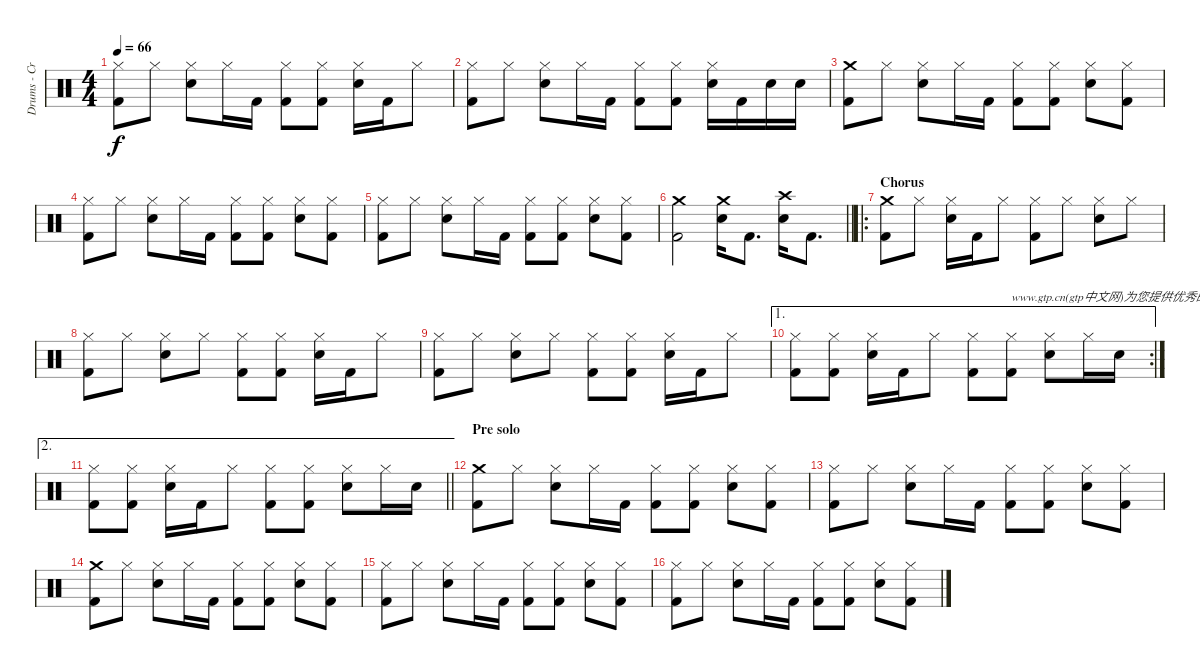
\track ("Drums - Craig" "Drums - Cr") {instrument percussion}
\staff {score}
\articulation defaults
\ts (4 4)
\tempo 66
\clef neutral
\ks c
("Hi-Hat (closed)" "Kick (hit) 2").8{dy f} "Hi-Hat (closed)".8 ("Hi-Hat (closed)" "Snare (hit) 2").8 "Hi-Hat (closed)".16 "Kick (hit) 2".16 ("Hi-Hat (closed)" "Kick (hit) 2").8 ("Hi-Hat (closed)" "Kick (hit) 2").8 ("Hi-Hat (closed)" "Snare (hit) 2").16 "Kick (hit) 2".16 "Hi-Hat (closed)".8 |
("Hi-Hat (closed)" "Kick (hit) 2").8 "Hi-Hat (closed)".8 ("Hi-Hat (closed)" "Snare (hit) 2").8 "Hi-Hat (closed)".16 "Kick (hit) 2".16 ("Hi-Hat (closed)" "Kick (hit) 2").8 ("Hi-Hat (closed)" "Kick (hit) 2").8 ("Hi-Hat (closed)" "Snare (hit) 2").16 "Kick (hit) 2".16 "Snare (hit) 2".16 "Snare (hit) 2".16 |
("Crash medium (hit)" "Kick (hit) 2").8 "Hi-Hat (closed)".8 ("Hi-Hat (closed)" "Snare (hit) 2").8 "Hi-Hat (closed)".16 "Kick (hit) 2".16 ("Hi-Hat (closed)" "Kick (hit) 2").8 ("Hi-Hat (closed)" "Kick (hit) 2").8 ("Hi-Hat (closed)" "Snare (hit) 2").8 ("Hi-Hat (closed)" "Kick (hit) 2").8 |
("Hi-Hat (closed)" "Kick (hit) 2").8 "Hi-Hat (closed)".8 ("Hi-Hat (closed)" "Snare (hit) 2").8 "Hi-Hat (closed)".16 "Kick (hit) 2".16 ("Hi-Hat (closed)" "Kick (hit) 2").8 ("Hi-Hat (closed)" "Kick (hit) 2").8 ("Hi-Hat (closed)" "Snare (hit) 2").8 ("Hi-Hat (closed)" "Kick (hit) 2").8 |
("Hi-Hat (closed)" "Kick (hit) 2").8 "Hi-Hat (closed)".8 ("Hi-Hat (closed)" "Snare (hit) 2").8 "Hi-Hat (closed)".16 "Kick (hit) 2".16 ("Hi-Hat (closed)" "Kick (hit) 2").8 ("Hi-Hat (closed)" "Kick (hit) 2").8 ("Hi-Hat (closed)" "Snare (hit) 2").8 ("Hi-Hat (closed)" "Kick (hit) 2").8 |
\barLineRight lightlight
("Crash medium (hit)" "Kick (hit) 2").2 ("Crash medium (hit)" "Snare (hit) 2").16 "Kick (hit) 2".8{d} ("Crash high (hit)" "Snare (hit) 2").16 "Kick (hit) 2".8{d} |
\ro
\section ("" "Chorus")
("Crash medium (hit)" "Kick (hit) 2").8 "Hi-Hat (closed)".8 ("Hi-Hat (closed)" "Snare (hit) 2").16 "Kick (hit) 2".16 "Hi-Hat (closed)".8 ("Hi-Hat (closed)" "Kick (hit) 2").8 "Hi-Hat (closed)".8 ("Hi-Hat (closed)" "Snare (hit) 2").8 "Hi-Hat (closed)".8 |
("Hi-Hat (closed)" "Kick (hit) 2").8 "Hi-Hat (closed)".8 ("Hi-Hat (closed)" "Snare (hit) 2").8 "Hi-Hat (closed)".8 ("Hi-Hat (closed)" "Kick (hit) 2").8 ("Hi-Hat (closed)" "Kick (hit) 2").8 ("Hi-Hat (closed)" "Snare (hit) 2").16 "Kick (hit) 2".16 "Hi-Hat (closed)".8 |
("Hi-Hat (closed)" "Kick (hit) 2").8 "Hi-Hat (closed)".8 ("Hi-Hat (closed)" "Snare (hit) 2").8 "Hi-Hat (closed)".8 ("Hi-Hat (closed)" "Kick (hit) 2").8 ("Hi-Hat (closed)" "Kick (hit) 2").8 ("Hi-Hat (closed)" "Snare (hit) 2").16 "Kick (hit) 2".16 "Hi-Hat (closed)".8 |
\ae 1
\rc 2
("Hi-Hat (closed)" "Kick (hit) 2").8 ("Hi-Hat (closed)" "Kick (hit) 2").8 ("Hi-Hat (closed)" "Snare (hit) 2").16 "Kick (hit) 2".16 "Hi-Hat (closed)".8 ("Hi-Hat (closed)" "Kick (hit) 2").8 ("Hi-Hat (closed)" "Kick (hit) 2").8{txt "www.gtp.cn(gtp中文网)为您提供优秀的GTP!"} ("Hi-Hat (closed)" "Snare (hit) 2").8 "Hi-Hat (closed)".16 "Snare (hit) 2".16 |
\ae 2
\barLineRight lightlight
("Hi-Hat (closed)" "Kick (hit) 2").8 ("Hi-Hat (closed)" "Kick (hit) 2").8 ("Hi-Hat (closed)" "Snare (hit) 2").16 "Kick (hit) 2".16 "Hi-Hat (closed)".8 ("Hi-Hat (closed)" "Kick (hit) 2").8 ("Hi-Hat (closed)" "Kick (hit) 2").8 ("Hi-Hat (closed)" "Snare (hit) 2").8 "Hi-Hat (closed)".16 "Snare (hit) 2".16 |
\section ("" "Pre solo")
("Crash medium (hit)" "Kick (hit) 2").8 "Hi-Hat (closed)".8 ("Hi-Hat (closed)" "Snare (hit) 2").8 "Hi-Hat (closed)".16 "Kick (hit) 2".16 ("Hi-Hat (closed)" "Kick (hit) 2").8 ("Hi-Hat (closed)" "Kick (hit) 2").8 ("Hi-Hat (closed)" "Snare (hit) 2").8 ("Hi-Hat (closed)" "Kick (hit) 2").8 |
("Hi-Hat (closed)" "Kick (hit) 2").8 "Hi-Hat (closed)".8 ("Hi-Hat (closed)" "Snare (hit) 2").8 "Hi-Hat (closed)".16 "Kick (hit) 2".16 ("Hi-Hat (closed)" "Kick (hit) 2").8 ("Hi-Hat (closed)" "Kick (hit) 2").8 ("Hi-Hat (closed)" "Snare (hit) 2").8 ("Hi-Hat (closed)" "Kick (hit) 2").8 |
("Crash medium (hit)" "Kick (hit) 2").8 "Hi-Hat (closed)".8 ("Hi-Hat (closed)" "Snare (hit) 2").8 "Hi-Hat (closed)".16 "Kick (hit) 2".16 ("Hi-Hat (closed)" "Kick (hit) 2").8 ("Hi-Hat (closed)" "Kick (hit) 2").8 ("Hi-Hat (closed)" "Snare (hit) 2").8 ("Hi-Hat (closed)" "Kick (hit) 2").8 |
("Hi-Hat (closed)" "Kick (hit) 2").8 "Hi-Hat (closed)".8 ("Hi-Hat (closed)" "Snare (hit) 2").8 "Hi-Hat (closed)".16 "Kick (hit) 2".16 ("Hi-Hat (closed)" "Kick (hit) 2").8 ("Hi-Hat (closed)" "Kick (hit) 2").8 ("Hi-Hat (closed)" "Snare (hit) 2").8 ("Hi-Hat (closed)" "Kick (hit) 2").8 |
("Hi-Hat (closed)" "Kick (hit) 2").8 "Hi-Hat (closed)".8 ("Hi-Hat (closed)" "Snare (hit) 2").8 "Hi-Hat (closed)".16 "Kick (hit) 2".16 ("Hi-Hat (closed)" "Kick (hit) 2").8 ("Hi-Hat (closed)" "Kick (hit) 2").8 ("Hi-Hat (closed)" "Snare (hit) 2").8 ("Hi-Hat (closed)" "Kick (hit) 2").8
